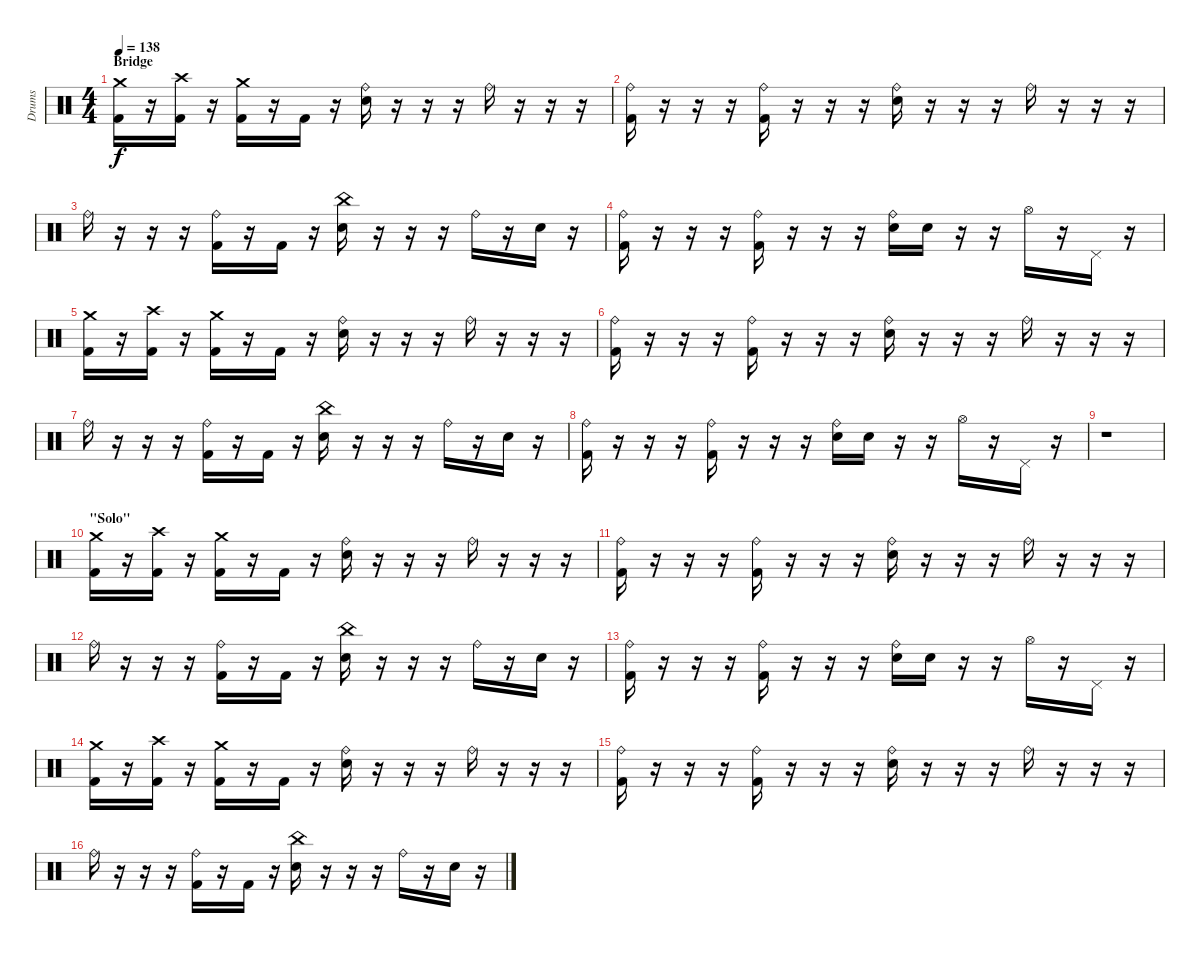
\track ("Drums" "Drums") {instrument percussion}
\staff {score}
\articulation defaults
\ts (4 4)
\section ("" "Bridge")
\tempo 138
\clef neutral
\ks c
("Crash medium (hit)" "Kick (hit) 2").16{dy f} r.16 ("Crash high (hit)" "Kick (hit) 2").16 r.16 ("Crash medium (hit)" "Kick (hit) 2").16 r.16 "Kick (hit) 2".16 r.16 ("Ride (bell)" "Snare (hit) 2").16 r.16 r.16 r.16 "Ride (bell)".16 r.16 r.16 r.16 |
("Ride (bell)" "Kick (hit) 2").16 r.16 r.16 r.16 ("Ride (bell)" "Kick (hit) 2").16 r.16 r.16 r.16 ("Ride (bell)" "Snare (hit) 2").16 r.16 r.16 r.16 "Ride (bell)".16 r.16 r.16 r.16 |
"Ride (bell)".16 r.16 r.16 r.16 ("Ride (bell)" "Kick (hit) 2").16 r.16 "Kick (hit) 2".16 r.16 ("China (hit)" "Snare (hit) 2").16 r.16 r.16 r.16 "Ride (bell)".16 r.16 "Snare (hit) 2".16 r.16 |
("Ride (bell)" "Kick (hit) 2").16 r.16 r.16 r.16 ("Ride (bell)" "Kick (hit) 2").16 r.16 r.16 r.16 ("Ride (bell)" "Snare (hit) 2").16 "Snare (hit) 2".16 r.16 r.16 "Hi-Hat (open)".16 r.16 "Pedal Hi-Hat (hit)".16 r.16 |
("Crash medium (hit)" "Kick (hit) 2").16 r.16 ("Crash high (hit)" "Kick (hit) 2").16 r.16 ("Crash medium (hit)" "Kick (hit) 2").16 r.16 "Kick (hit) 2".16 r.16 ("Ride (bell)" "Snare (hit) 2").16 r.16 r.16 r.16 "Ride (bell)".16 r.16 r.16 r.16 |
("Ride (bell)" "Kick (hit) 2").16 r.16 r.16 r.16 ("Ride (bell)" "Kick (hit) 2").16 r.16 r.16 r.16 ("Ride (bell)" "Snare (hit) 2").16 r.16 r.16 r.16 "Ride (bell)".16 r.16 r.16 r.16 |
"Ride (bell)".16 r.16 r.16 r.16 ("Ride (bell)" "Kick (hit) 2").16 r.16 "Kick (hit) 2".16 r.16 ("China (hit)" "Snare (hit) 2").16 r.16 r.16 r.16 "Ride (bell)".16 r.16 "Snare (hit) 2".16 r.16 |
("Ride (bell)" "Kick (hit) 2").16 r.16 r.16 r.16 ("Ride (bell)" "Kick (hit) 2").16 r.16 r.16 r.16 ("Ride (bell)" "Snare (hit) 2").16 "Snare (hit) 2".16 r.16 r.16 "Hi-Hat (open)".16 r.16 "Pedal Hi-Hat (hit)".16 r.16 |
r.1 |
\section ("" "\"Solo\"")
("Crash medium (hit)" "Kick (hit) 2").16 r.16 ("Crash high (hit)" "Kick (hit) 2").16 r.16 ("Crash medium (hit)" "Kick (hit) 2").16 r.16 "Kick (hit) 2".16 r.16 ("Ride (bell)" "Snare (hit) 2").16 r.16 r.16 r.16 "Ride (bell)".16 r.16 r.16 r.16 |
("Ride (bell)" "Kick (hit) 2").16 r.16 r.16 r.16 ("Ride (bell)" "Kick (hit) 2").16 r.16 r.16 r.16 ("Ride (bell)" "Snare (hit) 2").16 r.16 r.16 r.16 "Ride (bell)".16 r.16 r.16 r.16 |
"Ride (bell)".16 r.16 r.16 r.16 ("Ride (bell)" "Kick (hit) 2").16 r.16 "Kick (hit) 2".16 r.16 ("China (hit)" "Snare (hit) 2").16 r.16 r.16 r.16 "Ride (bell)".16 r.16 "Snare (hit) 2".16 r.16 |
("Ride (bell)" "Kick (hit) 2").16 r.16 r.16 r.16 ("Ride (bell)" "Kick (hit) 2").16 r.16 r.16 r.16 ("Ride (bell)" "Snare (hit) 2").16 "Snare (hit) 2".16 r.16 r.16 "Hi-Hat (open)".16 r.16 "Pedal Hi-Hat (hit)".16 r.16 |
("Crash medium (hit)" "Kick (hit) 2").16 r.16 ("Crash high (hit)" "Kick (hit) 2").16 r.16 ("Crash medium (hit)" "Kick (hit) 2").16 r.16 "Kick (hit) 2".16 r.16 ("Ride (bell)" "Snare (hit) 2").16 r.16 r.16 r.16 "Ride (bell)".16 r.16 r.16 r.16 |
("Ride (bell)" "Kick (hit) 2").16 r.16 r.16 r.16 ("Ride (bell)" "Kick (hit) 2").16 r.16 r.16 r.16 ("Ride (bell)" "Snare (hit) 2").16 r.16 r.16 r.16 "Ride (bell)".16 r.16 r.16 r.16 |
"Ride (bell)".16 r.16 r.16 r.16 ("Ride (bell)" "Kick (hit) 2").16 r.16 "Kick (hit) 2".16 r.16 ("China (hit)" "Snare (hit) 2").16 r.16 r.16 r.16 "Ride (bell)".16 r.16 "Snare (hit) 2".16 r.16
